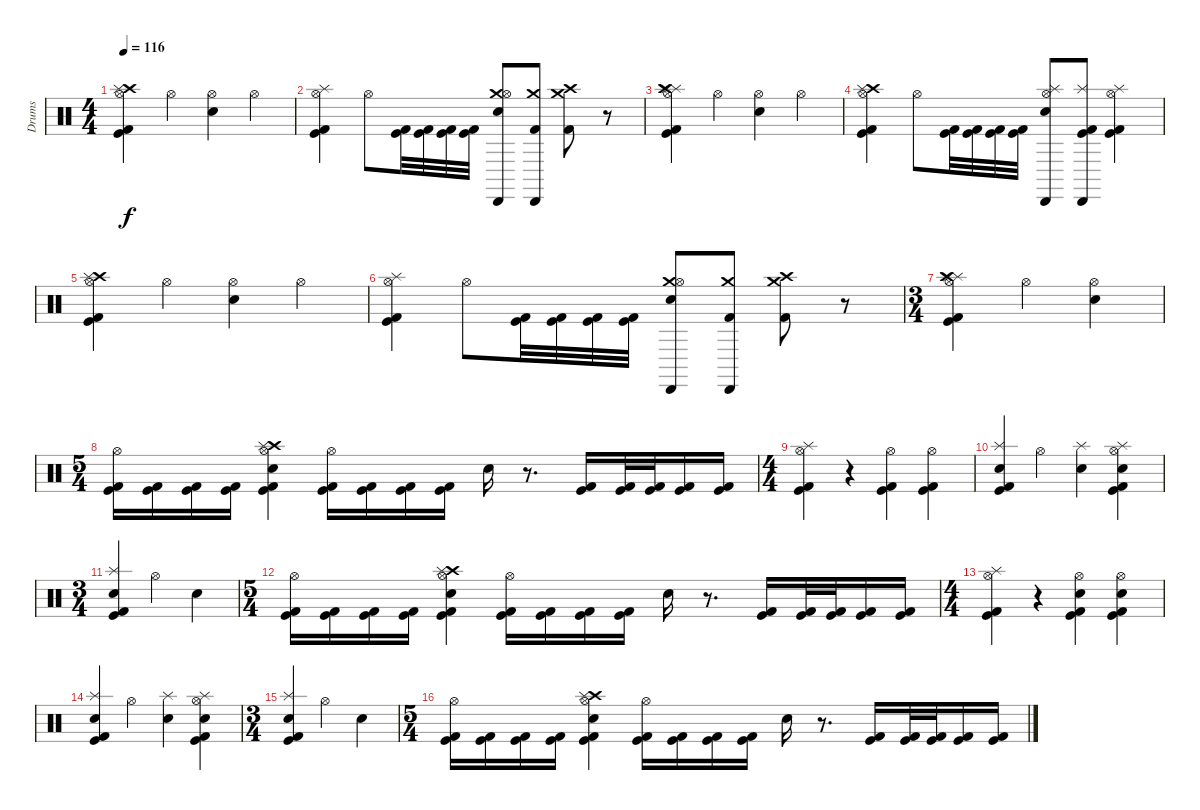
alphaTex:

\track ("Drums" "Drums") {instrument percussion}
\staff {score}
\articulation defaults
\ts (4 4)
\tempo 116
\clef neutral
\ks c
("Hi-Hat (open)" "Crash high (hit)" "Kick (hit)" "Kick (hit) 2" "Splash (hit)").4{dy f} "Hi-Hat (open)".4 ("Hi-Hat (open)" "Electric Snare (hit)").4 "Hi-Hat (open)".4 |
("Hi-Hat (open)" "Kick (hit)" "Kick (hit) 2" "Splash (hit)").4 "Hi-Hat (open)".8 ("Kick (hit)" "Kick (hit) 2").32 ("Kick (hit)" "Kick (hit) 2").32 ("Kick (hit)" "Kick (hit) 2").32 ("Kick (hit)" "Kick (hit) 2").32 ("Crash medium (hit)" "Electric Snare (hit)" "Hi-Hat (open)" "Cabasa (hit)").8 ("Kick (hit) 2" "Crash medium (hit)" "Cabasa (hit)").8 ("Kick (hit) 2" "Crash high (hit)" "Crash medium (hit)").8 r.8 |
("Splash (hit)" "Kick (hit)" "Kick (hit) 2" "Crash high (hit)" "Splash (hit)" "Hi-Hat (open)").4 "Hi-Hat (open)".4 ("Electric Snare (hit)" "Hi-Hat (open)").4 "Hi-Hat (open)".4 |
("Hi-Hat (open)" "Kick (hit)" "Kick (hit) 2" "Crash high (hit)" "Splash (hit)").4 "Hi-Hat (open)".8 ("Kick (hit) 2" "Kick (hit)").32 ("Kick (hit) 2" "Kick (hit)").32 ("Kick (hit) 2" "Kick (hit)").32 ("Kick (hit) 2" "Kick (hit)").32 ("Cabasa (hit)" "Splash (hit)" "Electric Snare (hit)" "Hi-Hat (open)").8 ("Kick (hit)" "Kick (hit) 2" "Cabasa (hit)" "Splash (hit)").8 ("Kick (hit)" "Kick (hit) 2" "Splash (hit)" "Hi-Hat (open)").4 |
("Hi-Hat (open)" "Crash high (hit)" "Kick (hit)" "Kick (hit) 2" "Splash (hit)").4 "Hi-Hat (open)".4 ("Hi-Hat (open)" "Electric Snare (hit)").4 "Hi-Hat (open)".4 |
("Hi-Hat (open)" "Kick (hit)" "Kick (hit) 2" "Splash (hit)").4 "Hi-Hat (open)".8 ("Kick (hit)" "Kick (hit) 2").32 ("Kick (hit)" "Kick (hit) 2").32 ("Kick (hit)" "Kick (hit) 2").32 ("Kick (hit)" "Kick (hit) 2").32 ("Crash medium (hit)" "Electric Snare (hit)" "Hi-Hat (open)" "Cabasa (hit)").8 ("Kick (hit) 2" "Crash medium (hit)" "Cabasa (hit)").8 ("Kick (hit) 2" "Crash high (hit)" "Crash medium (hit)").8 r.8 |
\ts (3 4)
("Splash (hit)" "Kick (hit)" "Kick (hit) 2" "Crash high (hit)" "Splash (hit)" "Hi-Hat (open)").4 "Hi-Hat (open)".4 ("Electric Snare (hit)" "Hi-Hat (open)").4 |
\ts (5 4)
("Kick (hit)" "Kick (hit) 2" "Hi-Hat (open)").16 ("Kick (hit)" "Kick (hit) 2").16 ("Kick (hit)" "Kick (hit) 2").16 ("Kick (hit)" "Kick (hit) 2").16 ("Electric Snare (hit)" "Hi-Hat (open)" "Kick (hit)" "Kick (hit) 2" "Crash high (hit)" "Splash (hit)").4 ("Kick (hit)" "Kick (hit) 2" "Hi-Hat (open)").16 ("Kick (hit)" "Kick (hit) 2").16 ("Kick (hit)" "Kick (hit) 2").16 ("Kick (hit)" "Kick (hit) 2").16 "Electric Snare (hit)".16 r.8{d} ("Kick (hit)" "Kick (hit) 2").16 ("Kick (hit)" "Kick (hit) 2").32 ("Kick (hit)" "Kick (hit) 2").32 ("Kick (hit)" "Kick (hit) 2").16 ("Kick (hit)" "Kick (hit) 2").16 |
\ts (4 4)
("Splash (hit)" "Kick (hit)" "Kick (hit) 2" "Hi-Hat (open)").4 r.4 ("Kick (hit) 2" "Kick (hit)" "Hi-Hat (open)").4 ("Kick (hit)" "Kick (hit) 2" "Hi-Hat (open)").4 |
("Electric Snare (hit)" "Kick (hit)" "Kick (hit) 2" "Splash (hit)").4 "Hi-Hat (open)".4 ("Splash (hit)" "Electric Snare (hit)").4 ("Splash (hit)" "Electric Snare (hit)" "Kick (hit) 2" "Kick (hit)" "Hi-Hat (open)").4 |
\ts (3 4)
("Electric Snare (hit)" "Kick (hit)" "Kick (hit) 2" "Splash (hit)").4 "Hi-Hat (open)".4 "Electric Snare (hit)".4 |
\ts (5 4)
("Kick (hit)" "Kick (hit) 2" "Hi-Hat (open)").16 ("Kick (hit)" "Kick (hit) 2").16 ("Kick (hit)" "Kick (hit) 2").16 ("Kick (hit)" "Kick (hit) 2").16 ("Electric Snare (hit)" "Hi-Hat (open)" "Kick (hit)" "Kick (hit) 2" "Crash high (hit)" "Splash (hit)").4 ("Kick (hit)" "Kick (hit) 2" "Hi-Hat (open)").16 ("Kick (hit)" "Kick (hit) 2").16 ("Kick (hit)" "Kick (hit) 2").16 ("Kick (hit)" "Kick (hit) 2").16 "Electric Snare (hit)".16 r.8{d} ("Kick (hit)" "Kick (hit) 2").16 ("Kick (hit)" "Kick (hit) 2").32 ("Kick (hit)" "Kick (hit) 2").32 ("Kick (hit)" "Kick (hit) 2").16 ("Kick (hit)" "Kick (hit) 2").16 |
\ts (4 4)
("Splash (hit)" "Kick (hit)" "Kick (hit) 2" "Hi-Hat (open)").4 r.4 ("Kick (hit) 2" "Kick (hit)" "Electric Snare (hit)" "Hi-Hat (open)").4 ("Electric Snare (hit)" "Kick (hit)" "Kick (hit) 2" "Hi-Hat (open)").4 |
("Electric Snare (hit)" "Kick (hit)" "Kick (hit) 2" "Splash (hit)").4 "Hi-Hat (open)".4 ("Splash (hit)" "Electric Snare (hit)").4 ("Splash (hit)" "Electric Snare (hit)" "Kick (hit) 2" "Kick (hit)" "Hi-Hat (open)").4 |
\ts (3 4)
("Electric Snare (hit)" "Kick (hit)" "Kick (hit) 2" "Splash (hit)").4 "Hi-Hat (open)".4 "Electric Snare (hit)".4 |
\ts (5 4)
("Kick (hit)" "Kick (hit) 2" "Hi-Hat (open)").16 ("Kick (hit)" "Kick (hit) 2").16 ("Kick (hit)" "Kick (hit) 2").16 ("Kick (hit)" "Kick (hit) 2").16 ("Electric Snare (hit)" "Hi-Hat (open)" "Kick (hit)" "Kick (hit) 2" "Crash high (hit)" "Splash (hit)").4 ("Kick (hit)" "Kick (hit) 2" "Hi-Hat (open)").16 ("Kick (hit)" "Kick (hit) 2").16 ("Kick (hit)" "Kick (hit) 2").16 ("Kick (hit)" "Kick (hit) 2").16 "Electric Snare (hit)".16 r.8{d} ("Kick (hit)" "Kick (hit) 2").16 ("Kick (hit)" "Kick (hit) 2").32 ("Kick (hit)" "Kick (hit) 2").32 ("Kick (hit)" "Kick (hit) 2").16 ("Kick (hit)" "Kick (hit) 2").16
